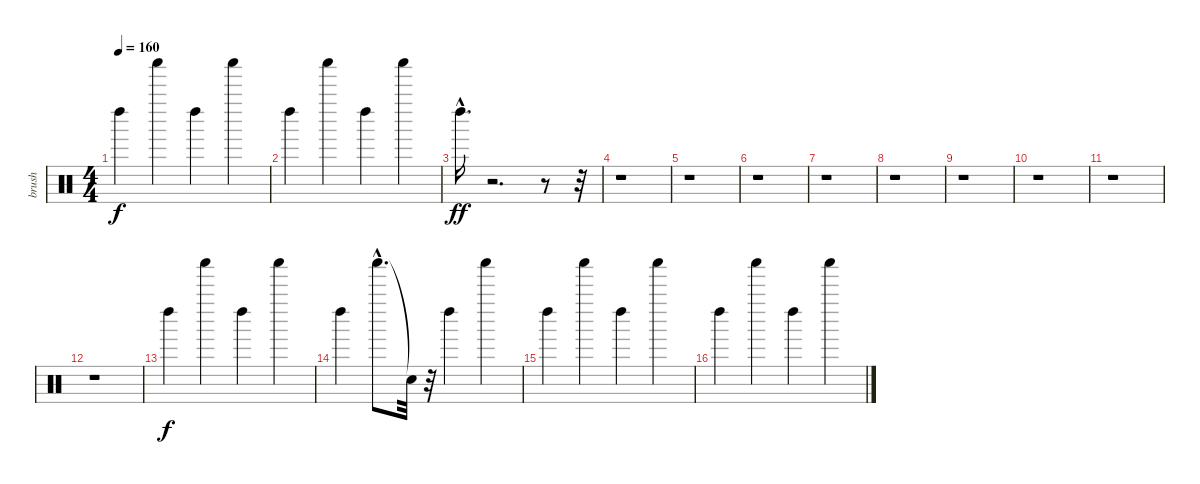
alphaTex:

\track ("brush" "brush") {instrument percussion}
\staff {score}
\articulation defaults
\ts (4 4)
\tempo 160
\clef neutral
\ks c "Left Maraca (hit)".4{dy f} "Shaker (hit)".4 "Left Maraca (hit)".4 "Shaker (hit)".4
|
"Left Maraca (hit)".4 "Shaker (hit)".4 "Left Maraca (hit)".4 "Shaker (hit)".4 |
"Left Maraca (hit)"{hac}.16{d dy ff} r.2{d} r.8 r.32 |
r.1 |
r.1 |
r.1 |
r.1 |
r.1 |
r.1 |
r.1 |
r.1 |
r.1 |
"Left Maraca (hit)".4{dy f} "Shaker (hit)".4 "Left Maraca (hit)".4 "Shaker (hit)".4 |
"Left Maraca (hit)".4 "Shaker (hit)"{hac}.8{d} "Snare (hit)"{t}.32 r.32 "Left Maraca (hit)".4 "Shaker (hit)".4 |
"Left Maraca (hit)".4 "Shaker (hit)".4 "Left Maraca (hit)".4 "Shaker (hit)".4 |
"Left Maraca (hit)".4 "Shaker (hit)".4 "Left Maraca (hit)".4 "Shaker (hit)".4
